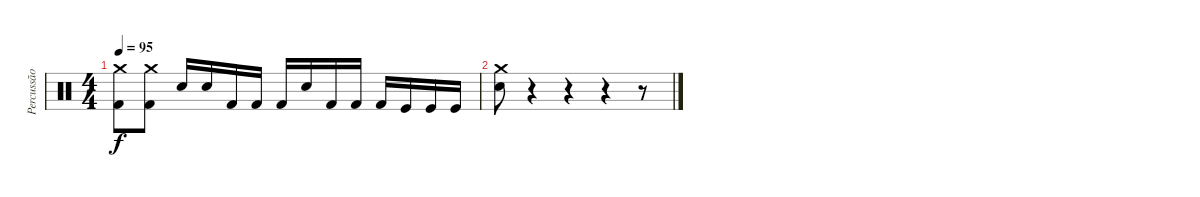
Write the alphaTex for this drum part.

\track ("Percussão" "Percussão") {instrument percussion}
\staff {score}
\articulation defaults
\ts (4 4)
\tempo 95
\clef neutral
\ks c
("Kick (hit) 2" "Crash medium (hit)").8{dy f} ("Kick (hit) 2" "Crash medium (hit)").8 "Electric Snare (hit)".16 "Electric Snare (hit)".16 "Kick (hit) 2".16 "Kick (hit) 2".16 "Kick (hit) 2".16 "Electric Snare (hit)".16 "Kick (hit) 2".16 "Kick (hit) 2".16 "Kick (hit) 2".16 "Kick (hit)".16 "Kick (hit)".16 "Kick (hit)".16 |
("Electric Snare (hit)" "Crash medium (hit)").8 r.4 r.4 r.4 r.8
